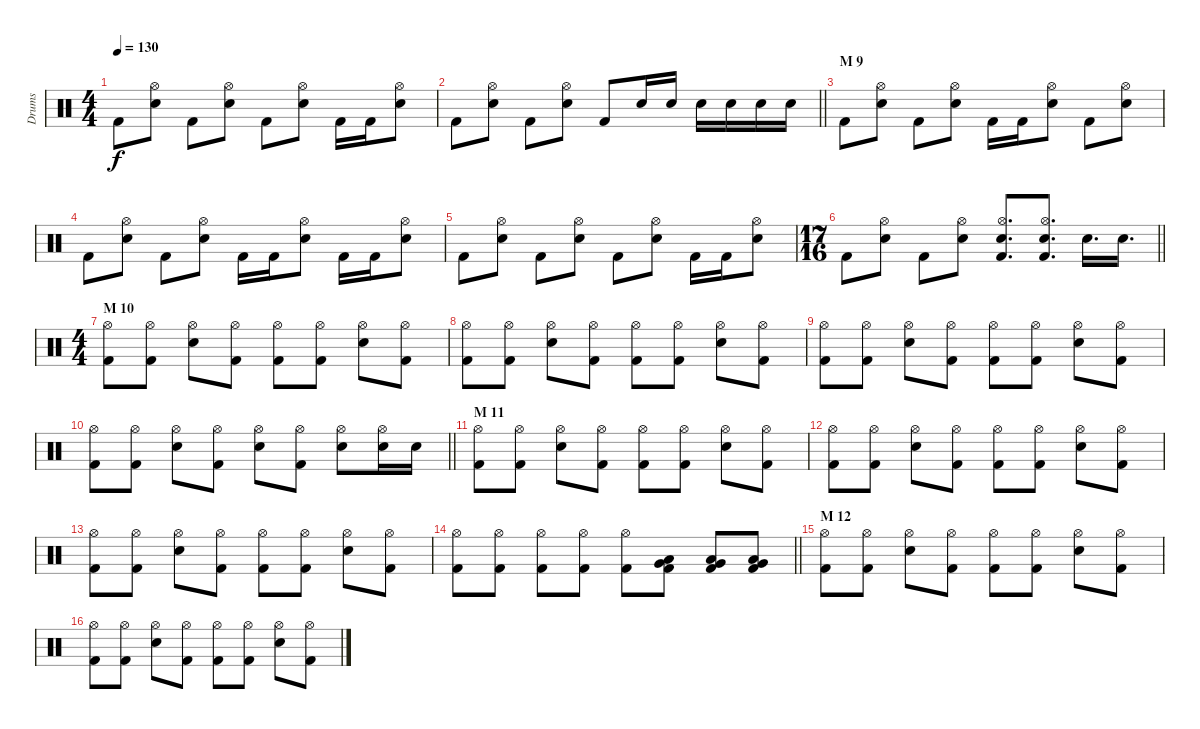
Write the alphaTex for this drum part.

\track ("Drums" "Drums") {instrument percussion}
\staff
\articulation defaults
\ts (4 4)
\tempo 130
\clef neutral
\ks c "Kick (hit) 2".8{dy f}
("Hi-Hat (open)" "Electric Snare (hit)").8 "Kick (hit) 2".8 ("Hi-Hat (open)" "Electric Snare (hit)").8 "Kick (hit) 2".8 ("Hi-Hat (open)" "Electric Snare (hit)").8 "Kick (hit) 2".16 "Kick (hit) 2".16 ("Hi-Hat (open)" "Electric Snare (hit)").8 |
\barLineRight lightlight "Kick (hit) 2".8
("Hi-Hat (open)" "Electric Snare (hit)").8 "Kick (hit) 2".8 ("Hi-Hat (open)" "Electric Snare (hit)").8 "Kick (hit) 2".8 "Electric Snare (hit)".16 "Electric Snare (hit)".16 "Electric Snare (hit)".16 "Electric Snare (hit)".16 "Electric Snare (hit)".16 "Electric Snare (hit)".16 |
\section ("" "M 9")
"Kick (hit) 2".8 ("Hi-Hat (open)" "Electric Snare (hit)").8 "Kick (hit) 2".8 ("Hi-Hat (open)" "Electric Snare (hit)").8 "Kick (hit) 2".16 "Kick (hit) 2".16 ("Hi-Hat (open)" "Electric Snare (hit)").8 "Kick (hit) 2".8 ("Hi-Hat (open)" "Electric Snare (hit)").8 |
"Kick (hit) 2".8 ("Hi-Hat (open)" "Electric Snare (hit)").8 "Kick (hit) 2".8 ("Hi-Hat (open)" "Electric Snare (hit)").8 "Kick (hit) 2".16 "Kick (hit) 2".16 ("Hi-Hat (open)" "Electric Snare (hit)").8 "Kick (hit) 2".16 "Kick (hit) 2".16 ("Hi-Hat (open)" "Electric Snare (hit)").8 |
"Kick (hit) 2".8 ("Hi-Hat (open)" "Electric Snare (hit)").8 "Kick (hit) 2".8 ("Hi-Hat (open)" "Electric Snare (hit)").8 "Kick (hit) 2".8 ("Hi-Hat (open)" "Electric Snare (hit)").8 "Kick (hit) 2".16 "Kick (hit) 2".16 ("Hi-Hat (open)" "Electric Snare (hit)").8 |
\ts (17 16)
\barLineRight lightlight "Kick (hit) 2".8
("Hi-Hat (open)" "Electric Snare (hit)").8 "Kick (hit) 2".8 ("Hi-Hat (open)" "Electric Snare (hit)").8 ("Hi-Hat (open)" "Electric Snare (hit)" "Kick (hit) 2").8{d} ("Hi-Hat (open)" "Electric Snare (hit)" "Kick (hit) 2").8{d} "Electric Snare (hit)".16{d} "Electric Snare (hit)".16{d} |
\ts (4 4)
\section ("" "M 10")
("Hi-Hat (open)" "Kick (hit) 2").8 ("Hi-Hat (open)" "Kick (hit) 2").8 ("Hi-Hat (open)" "Electric Snare (hit)").8 ("Hi-Hat (open)" "Kick (hit) 2").8 ("Hi-Hat (open)" "Kick (hit) 2").8 ("Hi-Hat (open)" "Kick (hit) 2").8 ("Hi-Hat (open)" "Electric Snare (hit)").8 ("Hi-Hat (open)" "Kick (hit) 2").8 |
("Hi-Hat (open)" "Kick (hit) 2").8 ("Hi-Hat (open)" "Kick (hit) 2").8 ("Hi-Hat (open)" "Electric Snare (hit)").8 ("Hi-Hat (open)" "Kick (hit) 2").8 ("Hi-Hat (open)" "Kick (hit) 2").8 ("Hi-Hat (open)" "Kick (hit) 2").8 ("Hi-Hat (open)" "Electric Snare (hit)").8 ("Hi-Hat (open)" "Kick (hit) 2").8 |
("Hi-Hat (open)" "Kick (hit) 2").8 ("Hi-Hat (open)" "Kick (hit) 2").8 ("Hi-Hat (open)" "Electric Snare (hit)").8 ("Hi-Hat (open)" "Kick (hit) 2").8 ("Hi-Hat (open)" "Kick (hit) 2").8 ("Hi-Hat (open)" "Kick (hit) 2").8 ("Hi-Hat (open)" "Electric Snare (hit)").8 ("Hi-Hat (open)" "Kick (hit) 2").8 |
\barLineRight lightlight
("Hi-Hat (open)" "Kick (hit) 2").8 ("Hi-Hat (open)" "Kick (hit) 2").8 ("Hi-Hat (open)" "Electric Snare (hit)").8 ("Hi-Hat (open)" "Kick (hit) 2").8 ("Hi-Hat (open)" "Electric Snare (hit)").8 ("Hi-Hat (open)" "Kick (hit) 2").8 ("Hi-Hat (open)" "Electric Snare (hit)").8 ("Hi-Hat (open)" "Electric Snare (hit)").16 "Electric Snare (hit)".16 |
\section ("" "M 11")
("Hi-Hat (open)" "Kick (hit) 2").8 ("Hi-Hat (open)" "Kick (hit) 2").8 ("Hi-Hat (open)" "Electric Snare (hit)").8 ("Hi-Hat (open)" "Kick (hit) 2").8 ("Hi-Hat (open)" "Kick (hit) 2").8 ("Hi-Hat (open)" "Kick (hit) 2").8 ("Hi-Hat (open)" "Electric Snare (hit)").8 ("Hi-Hat (open)" "Kick (hit) 2").8 |
("Hi-Hat (open)" "Kick (hit) 2").8 ("Hi-Hat (open)" "Kick (hit) 2").8 ("Hi-Hat (open)" "Electric Snare (hit)").8 ("Hi-Hat (open)" "Kick (hit) 2").8 ("Hi-Hat (open)" "Kick (hit) 2").8 ("Hi-Hat (open)" "Kick (hit) 2").8 ("Hi-Hat (open)" "Electric Snare (hit)").8 ("Hi-Hat (open)" "Kick (hit) 2").8 |
("Hi-Hat (open)" "Kick (hit) 2").8 ("Hi-Hat (open)" "Kick (hit) 2").8 ("Hi-Hat (open)" "Electric Snare (hit)").8 ("Hi-Hat (open)" "Kick (hit) 2").8 ("Hi-Hat (open)" "Kick (hit) 2").8 ("Hi-Hat (open)" "Kick (hit) 2").8 ("Hi-Hat (open)" "Electric Snare (hit)").8 ("Hi-Hat (open)" "Kick (hit) 2").8 |
\barLineRight lightlight
("Hi-Hat (open)" "Kick (hit) 2").8 ("Hi-Hat (open)" "Kick (hit) 2").8 ("Hi-Hat (open)" "Kick (hit) 2").8 ("Hi-Hat (open)" "Kick (hit) 2").8 ("Hi-Hat (open)" "Kick (hit) 2").8 ("Very Low Tom (hit)" "Low Floor Tom (hit)" "Kick (hit) 2").8 ("Very Low Tom (hit)" "Low Floor Tom (hit)" "Kick (hit) 2").8 ("Very Low Tom (hit)" "Low Floor Tom (hit)" "Kick (hit) 2").8 |
\section ("" "M 12")
("Hi-Hat (open)" "Kick (hit) 2").8 ("Hi-Hat (open)" "Kick (hit) 2").8 ("Hi-Hat (open)" "Electric Snare (hit)").8 ("Hi-Hat (open)" "Kick (hit) 2").8 ("Hi-Hat (open)" "Kick (hit) 2").8 ("Hi-Hat (open)" "Kick (hit) 2").8 ("Hi-Hat (open)" "Electric Snare (hit)").8 ("Hi-Hat (open)" "Kick (hit) 2").8 |
("Hi-Hat (open)" "Kick (hit) 2").8 ("Hi-Hat (open)" "Kick (hit) 2").8 ("Hi-Hat (open)" "Electric Snare (hit)").8 ("Hi-Hat (open)" "Kick (hit) 2").8 ("Hi-Hat (open)" "Kick (hit) 2").8 ("Hi-Hat (open)" "Kick (hit) 2").8 ("Hi-Hat (open)" "Electric Snare (hit)").8 ("Hi-Hat (open)" "Kick (hit) 2").8
